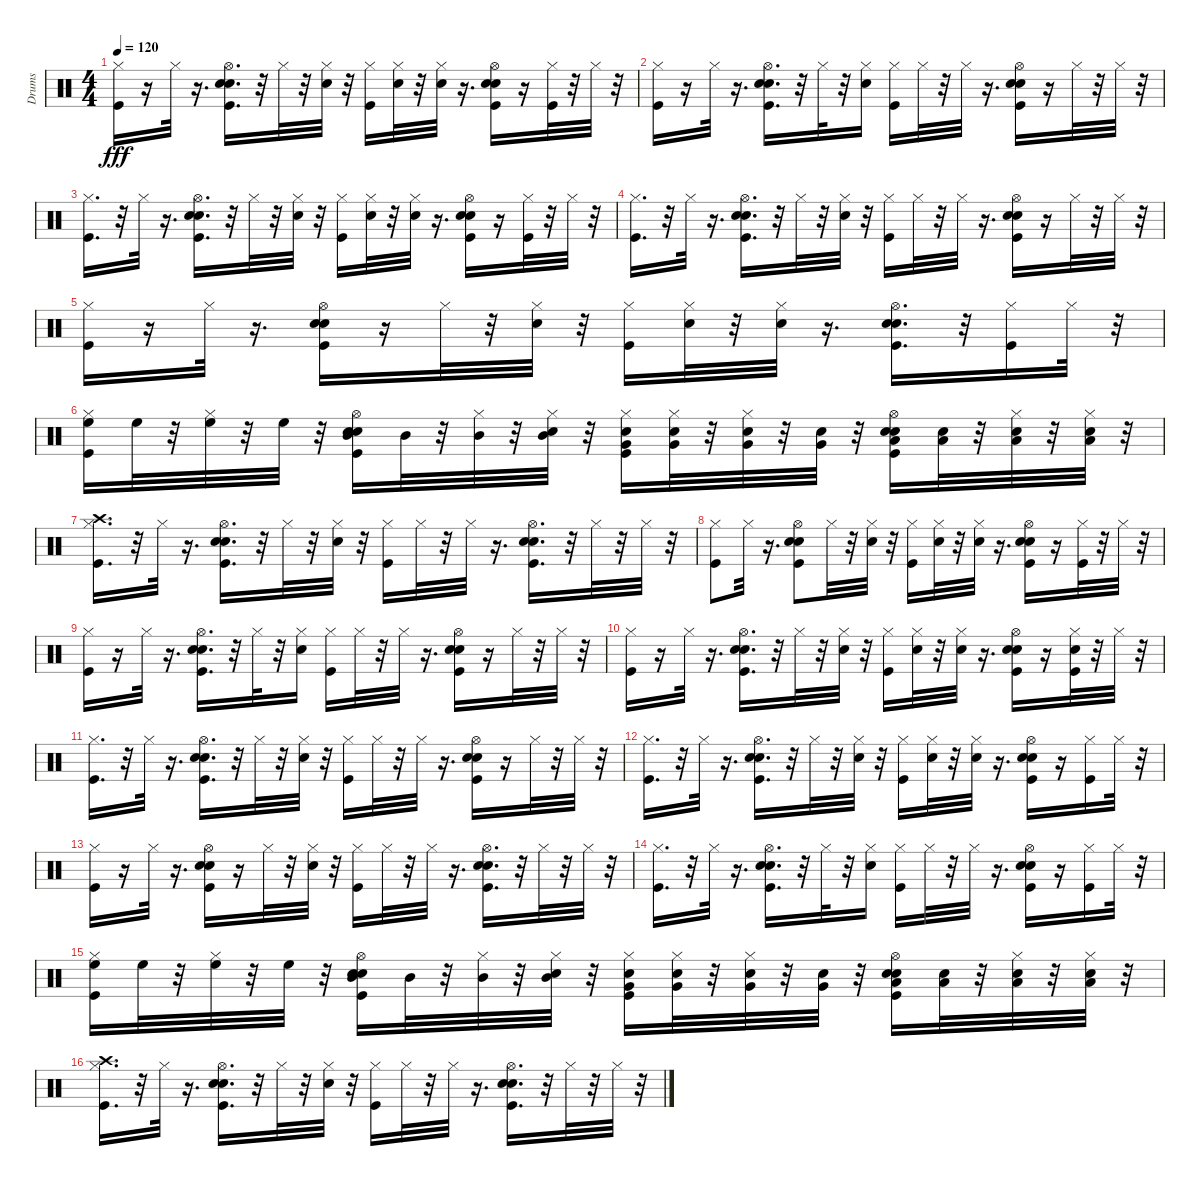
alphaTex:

\track ("Drums" "Drums") {instrument percussion}
\staff {score}
\articulation defaults
\ts (4 4)
\tempo 120
\clef neutral
\ks c
("Hi-Hat (closed)" "Kick (hit)").16{dy fff} r.16 "Hi-Hat (closed)".32 r.16{d} ("Hi-Hat (open)" "Kick (hit)" "Hand Clap (hit)" "Electric Snare (hit)").16{d} r.32 "Hi-Hat (closed)".32 r.32 ("Hi-Hat (closed)" "Electric Snare (hit)").32 r.32 ("Hi-Hat (closed)" "Kick (hit)").16 ("Hi-Hat (closed)" "Electric Snare (hit)").32 r.32 ("Hi-Hat (closed)" "Electric Snare (hit)").32 r.16{d} ("Hi-Hat (open)" "Kick (hit)" "Hand Clap (hit)" "Electric Snare (hit)").16 r.16 ("Hi-Hat (closed)" "Kick (hit)").32 r.32 "Hi-Hat (closed)".32 r.32 |
("Hi-Hat (closed)" "Kick (hit)").16 r.16 "Hi-Hat (closed)".32 r.16{d} ("Hi-Hat (open)" "Kick (hit)" "Hand Clap (hit)" "Electric Snare (hit)").16{d} r.32 "Hi-Hat (closed)".32 r.32 ("Hi-Hat (closed)" "Electric Snare (hit)").16 ("Hi-Hat (closed)" "Kick (hit)").16 "Hi-Hat (closed)".32 r.32 "Hi-Hat (closed)".32 r.16{d} ("Hi-Hat (open)" "Kick (hit)" "Hand Clap (hit)" "Electric Snare (hit)").16 r.16 "Hi-Hat (closed)".32 r.32 "Hi-Hat (closed)".32 r.32 |
("Hi-Hat (closed)" "Kick (hit)").16{d} r.32 "Hi-Hat (closed)".32 r.16{d} ("Hi-Hat (open)" "Kick (hit)" "Hand Clap (hit)" "Electric Snare (hit)").16{d} r.32 "Hi-Hat (closed)".32 r.32 ("Hi-Hat (closed)" "Electric Snare (hit)").32 r.32 ("Hi-Hat (closed)" "Kick (hit)").16 ("Hi-Hat (closed)" "Electric Snare (hit)").32 r.32 ("Hi-Hat (closed)" "Electric Snare (hit)").32 r.16{d} ("Hi-Hat (open)" "Kick (hit)" "Hand Clap (hit)" "Electric Snare (hit)").16 r.16 ("Hi-Hat (closed)" "Kick (hit)").32 r.32 "Hi-Hat (closed)".32 r.32 |
("Hi-Hat (closed)" "Kick (hit)").16{d} r.32 "Hi-Hat (closed)".32 r.16{d} ("Hi-Hat (open)" "Kick (hit)" "Hand Clap (hit)" "Electric Snare (hit)").16{d} r.32 "Hi-Hat (closed)".32 r.32 ("Hi-Hat (closed)" "Electric Snare (hit)").32 r.32 ("Hi-Hat (closed)" "Kick (hit)").16 "Hi-Hat (closed)".32 r.32 "Hi-Hat (closed)".32 r.16{d} ("Hi-Hat (open)" "Kick (hit)" "Hand Clap (hit)" "Electric Snare (hit)").16 r.16 "Hi-Hat (closed)".32 r.32 "Hi-Hat (closed)".32 r.32 |
("Hi-Hat (closed)" "Kick (hit)").16 r.16 "Hi-Hat (closed)".32 r.16{d} ("Hi-Hat (open)" "Kick (hit)" "Hand Clap (hit)" "Electric Snare (hit)").16 r.16 "Hi-Hat (closed)".32 r.32 ("Hi-Hat (closed)" "Electric Snare (hit)").32 r.32 ("Hi-Hat (closed)" "Kick (hit)").16 ("Hi-Hat (closed)" "Electric Snare (hit)").32 r.32 ("Hi-Hat (closed)" "Electric Snare (hit)").32 r.16{d} ("Hi-Hat (open)" "Kick (hit)" "Hand Clap (hit)" "Electric Snare (hit)").16{d} r.32 ("Hi-Hat (closed)" "Kick (hit)").16 "Hi-Hat (closed)".32 r.32 |
("Hi-Hat (closed)" "Kick (hit)" "High Floor Tom (hit)").16 "High Floor Tom (hit)".32 r.32 ("Hi-Hat (closed)" "High Floor Tom (hit)").32 r.32 "High Floor Tom (hit)".32 r.32 ("Hi-Hat (open)" "Kick (hit)" "Mid Tom (hit)" "Hand Clap (hit)" "Electric Snare (hit)").16 "Mid Tom (hit)".32 r.32 ("Hi-Hat (closed)" "Mid Tom (hit)").32 r.32 ("Hi-Hat (closed)" "Electric Snare (hit)" "Mid Tom (hit)").32 r.32 ("Hi-Hat (closed)" "Kick (hit)" "Very Low Tom (hit)" "Electric Snare (hit)").16 ("Hi-Hat (closed)" "Electric Snare (hit)" "Very Low Tom (hit)").32 r.32 ("Hi-Hat (closed)" "Electric Snare (hit)" "Very Low Tom (hit)").32 r.32 ("Very Low Tom (hit)" "Electric Snare (hit)").32 r.32 ("Low Floor Tom (hit)" "Kick (hit)" "Hi-Hat (open)" "Hand Clap (hit)" "Electric Snare (hit)").16 ("Low Floor Tom (hit)" "Electric Snare (hit)").32 r.32 ("Low Floor Tom (hit)" "Electric Snare (hit)" "Hi-Hat (closed)").32 r.32 ("Low Floor Tom (hit)" "Electric Snare (hit)" "Hi-Hat (closed)").32 r.32 |
("Hi-Hat (closed)" "Kick (hit)" "Crash high (hit)").16{d} r.32 "Hi-Hat (closed)".32 r.16{d} ("Hi-Hat (open)" "Kick (hit)" "Hand Clap (hit)" "Electric Snare (hit)").16{d} r.32 "Hi-Hat (closed)".32 r.32 ("Hi-Hat (closed)" "Electric Snare (hit)").32 r.32 ("Hi-Hat (closed)" "Kick (hit)").16 "Hi-Hat (closed)".32 r.32 "Hi-Hat (closed)".32 r.16{d} ("Hi-Hat (open)" "Kick (hit)" "Hand Clap (hit)" "Electric Snare (hit)").16{d} r.32 "Hi-Hat (closed)".32 r.32 "Hi-Hat (closed)".32 r.32 |
("Hi-Hat (closed)" "Kick (hit)").8 "Hi-Hat (closed)".32 r.16{d} ("Hi-Hat (open)" "Kick (hit)" "Hand Clap (hit)" "Electric Snare (hit)").8 "Hi-Hat (closed)".32 r.32 ("Hi-Hat (closed)" "Electric Snare (hit)").32 r.32 ("Hi-Hat (closed)" "Kick (hit)").16 ("Hi-Hat (closed)" "Electric Snare (hit)").32 r.32 ("Hi-Hat (closed)" "Electric Snare (hit)").32 r.16{d} ("Hi-Hat (open)" "Kick (hit)" "Hand Clap (hit)" "Electric Snare (hit)").16 r.16 ("Hi-Hat (closed)" "Kick (hit)").32 r.32 "Hi-Hat (closed)".32 r.32 |
("Hi-Hat (closed)" "Kick (hit)").16 r.16 "Hi-Hat (closed)".32 r.16{d} ("Hi-Hat (open)" "Kick (hit)" "Hand Clap (hit)" "Electric Snare (hit)").16{d} r.32 "Hi-Hat (closed)".32 r.32 ("Hi-Hat (closed)" "Electric Snare (hit)").16 ("Hi-Hat (closed)" "Kick (hit)").16 "Hi-Hat (closed)".32 r.32 "Hi-Hat (closed)".32 r.16{d} ("Hi-Hat (open)" "Kick (hit)" "Hand Clap (hit)" "Electric Snare (hit)").16 r.16 "Hi-Hat (closed)".32 r.32 "Hi-Hat (closed)".32 r.32 |
("Hi-Hat (closed)" "Kick (hit)").16 r.16 "Hi-Hat (closed)".32 r.16{d} ("Hi-Hat (open)" "Kick (hit)" "Hand Clap (hit)" "Electric Snare (hit)").16{d} r.32 "Hi-Hat (closed)".32 r.32 ("Hi-Hat (closed)" "Electric Snare (hit)").32 r.32 ("Hi-Hat (closed)" "Kick (hit)").16 ("Hi-Hat (closed)" "Electric Snare (hit)").32 r.32 ("Hi-Hat (closed)" "Electric Snare (hit)").32 r.16{d} ("Hi-Hat (open)" "Kick (hit)" "Hand Clap (hit)" "Electric Snare (hit)").16 r.16 ("Hi-Hat (closed)" "Kick (hit)" "Electric Snare (hit)").32 r.32 "Hi-Hat (closed)".32 r.32 |
("Hi-Hat (closed)" "Kick (hit)").16{d} r.32 "Hi-Hat (closed)".32 r.16{d} ("Hi-Hat (open)" "Kick (hit)" "Hand Clap (hit)" "Electric Snare (hit)").16{d} r.32 "Hi-Hat (closed)".32 r.32 ("Hi-Hat (closed)" "Electric Snare (hit)").32 r.32 ("Hi-Hat (closed)" "Kick (hit)").16 "Hi-Hat (closed)".32 r.32 "Hi-Hat (closed)".32 r.16{d} ("Hi-Hat (open)" "Kick (hit)" "Hand Clap (hit)" "Electric Snare (hit)").16 r.16 "Hi-Hat (closed)".32 r.32 "Hi-Hat (closed)".32 r.32 |
("Hi-Hat (closed)" "Kick (hit)").16{d} r.32 "Hi-Hat (closed)".32 r.16{d} ("Hi-Hat (open)" "Kick (hit)" "Hand Clap (hit)" "Electric Snare (hit)").16{d} r.32 "Hi-Hat (closed)".32 r.32 ("Hi-Hat (closed)" "Electric Snare (hit)").32 r.32 ("Hi-Hat (closed)" "Kick (hit)").16 ("Hi-Hat (closed)" "Electric Snare (hit)").32 r.32 ("Hi-Hat (closed)" "Electric Snare (hit)").32 r.16{d} ("Hi-Hat (open)" "Kick (hit)" "Hand Clap (hit)" "Electric Snare (hit)").16 r.16 ("Hi-Hat (closed)" "Kick (hit)").16 "Hi-Hat (closed)".32 r.32 |
("Hi-Hat (closed)" "Kick (hit)").16 r.16 "Hi-Hat (closed)".32 r.16{d} ("Hi-Hat (open)" "Kick (hit)" "Hand Clap (hit)" "Electric Snare (hit)").16 r.16 "Hi-Hat (closed)".32 r.32 ("Hi-Hat (closed)" "Electric Snare (hit)").32 r.32 ("Hi-Hat (closed)" "Kick (hit)").16 "Hi-Hat (closed)".32 r.32 "Hi-Hat (closed)".32 r.16{d} ("Hi-Hat (open)" "Kick (hit)" "Hand Clap (hit)" "Electric Snare (hit)").16{d} r.32 "Hi-Hat (closed)".32 r.32 "Hi-Hat (closed)".32 r.32 |
("Hi-Hat (closed)" "Kick (hit)").16{d} r.32 "Hi-Hat (closed)".32 r.16{d} ("Hi-Hat (open)" "Kick (hit)" "Hand Clap (hit)" "Electric Snare (hit)").16{d} r.32 "Hi-Hat (closed)".32 r.32 ("Hi-Hat (closed)" "Electric Snare (hit)").16 ("Hi-Hat (closed)" "Kick (hit)").16 "Hi-Hat (closed)".32 r.32 "Hi-Hat (closed)".32 r.16{d} ("Hi-Hat (open)" "Kick (hit)" "Hand Clap (hit)" "Electric Snare (hit)").16 r.16 ("Hi-Hat (closed)" "Kick (hit)").16 "Hi-Hat (closed)".32 r.32 |
("Hi-Hat (closed)" "Kick (hit)" "High Floor Tom (hit)").16 "High Floor Tom (hit)".32 r.32 ("Hi-Hat (closed)" "High Floor Tom (hit)").32 r.32 "High Floor Tom (hit)".32 r.32 ("Hi-Hat (open)" "Kick (hit)" "Mid Tom (hit)" "Hand Clap (hit)" "Electric Snare (hit)").16 "Mid Tom (hit)".32 r.32 ("Hi-Hat (closed)" "Mid Tom (hit)").32 r.32 ("Hi-Hat (closed)" "Electric Snare (hit)" "Mid Tom (hit)").32 r.32 ("Hi-Hat (closed)" "Kick (hit)" "Very Low Tom (hit)" "Electric Snare (hit)").16 ("Hi-Hat (closed)" "Electric Snare (hit)" "Very Low Tom (hit)").32 r.32 ("Hi-Hat (closed)" "Electric Snare (hit)" "Very Low Tom (hit)").32 r.32 ("Very Low Tom (hit)" "Electric Snare (hit)").32 r.32 ("Low Floor Tom (hit)" "Kick (hit)" "Hi-Hat (open)" "Hand Clap (hit)" "Electric Snare (hit)").16 ("Low Floor Tom (hit)" "Electric Snare (hit)").32 r.32 ("Low Floor Tom (hit)" "Electric Snare (hit)" "Hi-Hat (closed)").32 r.32 ("Low Floor Tom (hit)" "Electric Snare (hit)" "Hi-Hat (closed)").32 r.32 |
("Hi-Hat (closed)" "Kick (hit)" "Crash high (hit)").16{d} r.32 "Hi-Hat (closed)".32 r.16{d} ("Hi-Hat (open)" "Kick (hit)" "Hand Clap (hit)" "Electric Snare (hit)").16{d} r.32 "Hi-Hat (closed)".32 r.32 ("Hi-Hat (closed)" "Electric Snare (hit)").32 r.32 ("Hi-Hat (closed)" "Kick (hit)").16 "Hi-Hat (closed)".32 r.32 "Hi-Hat (closed)".32 r.16{d} ("Hi-Hat (open)" "Kick (hit)" "Hand Clap (hit)" "Electric Snare (hit)").16{d} r.32 "Hi-Hat (closed)".32 r.32 "Hi-Hat (closed)".32 r.32
